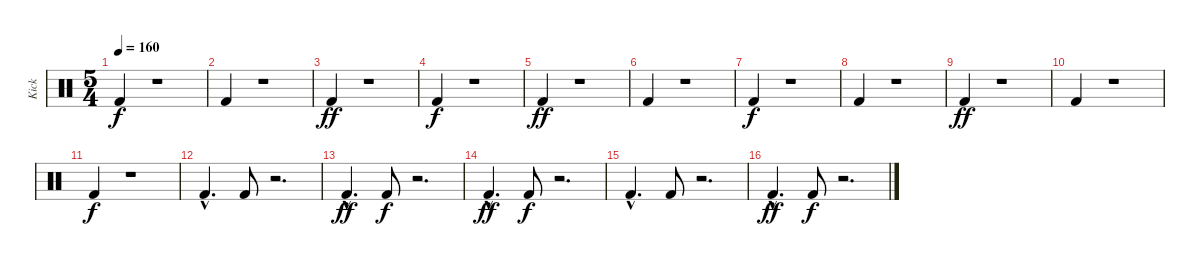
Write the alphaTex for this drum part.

\track ("Kick" "Kick") {instrument percussion}
\staff {score}
\articulation defaults
\ts (5 4)
\tempo 160
\clef neutral
\ks c "Kick (hit) 2".4{dy f}
r.1 |
"Kick (hit) 2".4 r.1 |
"Kick (hit) 2".4{dy ff} r.1 |
"Kick (hit) 2".4{dy f} r.1 |
"Kick (hit) 2".4{dy ff} r.1 |
"Kick (hit) 2".4 r.1 |
"Kick (hit) 2".4{dy f} r.1 |
"Kick (hit) 2".4 r.1 |
"Kick (hit) 2".4{dy ff} r.1 |
"Kick (hit) 2".4 r.1 |
"Kick (hit) 2".4{dy f} r.1 |
"Kick (hit) 2"{hac}.4{d} "Kick (hit) 2".8 r.2{d} |
"Kick (hit) 2"{hac}.4{d dy ff} "Kick (hit) 2".8{dy f} r.2{d} |
"Kick (hit) 2"{hac}.4{d dy ff} "Kick (hit) 2".8{dy f} r.2{d} |
"Kick (hit) 2"{hac}.4{d} "Kick (hit) 2".8 r.2{d} |
"Kick (hit) 2"{hac}.4{d dy ff} "Kick (hit) 2".8{dy f} r.2{d}
